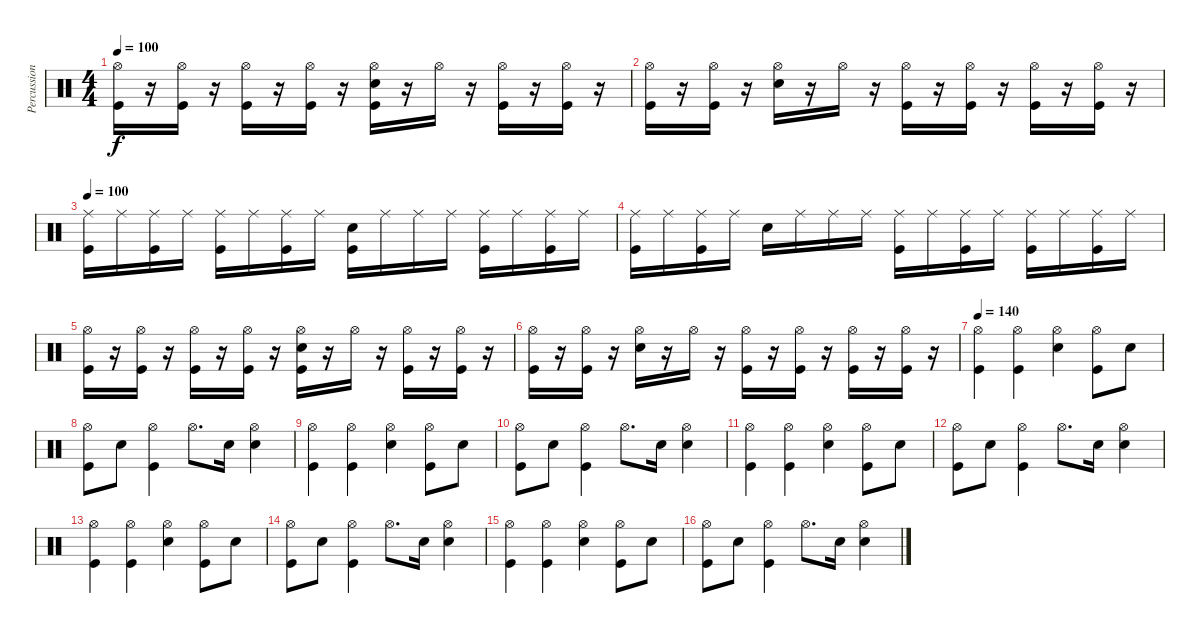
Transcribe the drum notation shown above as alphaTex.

\track ("Percussion" "Percussion") {instrument percussion}
\staff {score}
\articulation defaults
\ts (4 4)
\tempo 100
\clef neutral
\ks c
("Hi-Hat (open)" "Kick (hit)").16{dy f} r.16 ("Hi-Hat (open)" "Kick (hit)").16 r.16 ("Hi-Hat (open)" "Kick (hit)").16 r.16 ("Hi-Hat (open)" "Kick (hit)").16 r.16 ("Hi-Hat (open)" "Snare (hit) 2" "Kick (hit)").16 r.16 "Hi-Hat (open)".16 r.16 ("Hi-Hat (open)" "Kick (hit)").16 r.16 ("Hi-Hat (open)" "Kick (hit)").16 r.16 |
("Hi-Hat (open)" "Kick (hit)").16 r.16 ("Hi-Hat (open)" "Kick (hit)").16 r.16 ("Hi-Hat (open)" "Snare (hit) 2").16 r.16 "Hi-Hat (open)".16 r.16 ("Hi-Hat (open)" "Kick (hit)").16 r.16 ("Hi-Hat (open)" "Kick (hit)").16 r.16 ("Hi-Hat (open)" "Kick (hit)").16 r.16 ("Hi-Hat (open)" "Kick (hit)").16 r.16 |
\tempo 100
("Ride (middle)" "Kick (hit)").16 "Ride (middle)".16 ("Ride (middle)" "Kick (hit)").16 "Ride (middle)".16 ("Ride (middle)" "Kick (hit)").16 "Ride (middle)".16 ("Ride (middle)" "Kick (hit)").16 "Ride (middle)".16 ("Snare (hit) 2" "Kick (hit)").16 "Ride (middle)".16 "Ride (middle)".16 "Ride (middle)".16 ("Ride (middle)" "Kick (hit)").16 "Ride (middle)".16 ("Ride (middle)" "Kick (hit)").16 "Ride (middle)".16 |
("Ride (middle)" "Kick (hit)").16 "Ride (middle)".16 ("Ride (middle)" "Kick (hit)").16 "Ride (middle)".16 "Snare (hit) 2".16 "Ride (middle)".16 "Ride (middle)".16 "Ride (middle)".16 ("Ride (middle)" "Kick (hit)").16 "Ride (middle)".16 ("Ride (middle)" "Kick (hit)").16 "Ride (middle)".16 ("Ride (middle)" "Kick (hit)").16 "Ride (middle)".16 ("Ride (middle)" "Kick (hit)").16 "Ride (middle)".16 |
("Hi-Hat (open)" "Kick (hit)").16 r.16 ("Hi-Hat (open)" "Kick (hit)").16 r.16 ("Hi-Hat (open)" "Kick (hit)").16 r.16 ("Hi-Hat (open)" "Kick (hit)").16 r.16 ("Hi-Hat (open)" "Snare (hit) 2" "Kick (hit)").16 r.16 "Hi-Hat (open)".16 r.16 ("Hi-Hat (open)" "Kick (hit)").16 r.16 ("Hi-Hat (open)" "Kick (hit)").16 r.16 |
("Hi-Hat (open)" "Kick (hit)").16 r.16 ("Hi-Hat (open)" "Kick (hit)").16 r.16 ("Hi-Hat (open)" "Snare (hit) 2").16 r.16 "Hi-Hat (open)".16 r.16 ("Hi-Hat (open)" "Kick (hit)").16 r.16 ("Hi-Hat (open)" "Kick (hit)").16 r.16 ("Hi-Hat (open)" "Kick (hit)").16 r.16 ("Hi-Hat (open)" "Kick (hit)").16 r.16 |
\tempo 140
("Hi-Hat (open)" "Kick (hit)").4 ("Hi-Hat (open)" "Kick (hit)").4 ("Hi-Hat (open)" "Snare (hit) 2").4 ("Hi-Hat (open)" "Kick (hit)").8 "Snare (hit) 2".8 |
("Hi-Hat (open)" "Kick (hit)").8 "Snare (hit) 2".8 ("Hi-Hat (open)" "Kick (hit)").4 "Hi-Hat (open)".8{d} "Snare (hit) 2".16 ("Hi-Hat (open)" "Snare (hit) 2").4 |
("Hi-Hat (open)" "Kick (hit)").4 ("Hi-Hat (open)" "Kick (hit)").4 ("Hi-Hat (open)" "Snare (hit) 2").4 ("Hi-Hat (open)" "Kick (hit)").8 "Snare (hit) 2".8 |
("Hi-Hat (open)" "Kick (hit)").8 "Snare (hit) 2".8 ("Hi-Hat (open)" "Kick (hit)").4 "Hi-Hat (open)".8{d} "Snare (hit) 2".16 ("Hi-Hat (open)" "Snare (hit) 2").4 |
("Hi-Hat (open)" "Kick (hit)").4 ("Hi-Hat (open)" "Kick (hit)").4 ("Hi-Hat (open)" "Snare (hit) 2").4 ("Hi-Hat (open)" "Kick (hit)").8 "Snare (hit) 2".8 |
("Hi-Hat (open)" "Kick (hit)").8 "Snare (hit) 2".8 ("Hi-Hat (open)" "Kick (hit)").4 "Hi-Hat (open)".8{d} "Snare (hit) 2".16 ("Hi-Hat (open)" "Snare (hit) 2").4 |
("Hi-Hat (open)" "Kick (hit)").4 ("Hi-Hat (open)" "Kick (hit)").4 ("Hi-Hat (open)" "Snare (hit) 2").4 ("Hi-Hat (open)" "Kick (hit)").8 "Snare (hit) 2".8 |
("Hi-Hat (open)" "Kick (hit)").8 "Snare (hit) 2".8 ("Hi-Hat (open)" "Kick (hit)").4 "Hi-Hat (open)".8{d} "Snare (hit) 2".16 ("Hi-Hat (open)" "Snare (hit) 2").4 |
("Hi-Hat (open)" "Kick (hit)").4 ("Hi-Hat (open)" "Kick (hit)").4 ("Hi-Hat (open)" "Snare (hit) 2").4 ("Hi-Hat (open)" "Kick (hit)").8 "Snare (hit) 2".8 |
("Hi-Hat (open)" "Kick (hit)").8 "Snare (hit) 2".8 ("Hi-Hat (open)" "Kick (hit)").4 "Hi-Hat (open)".8{d} "Snare (hit) 2".16 ("Hi-Hat (open)" "Snare (hit) 2").4
